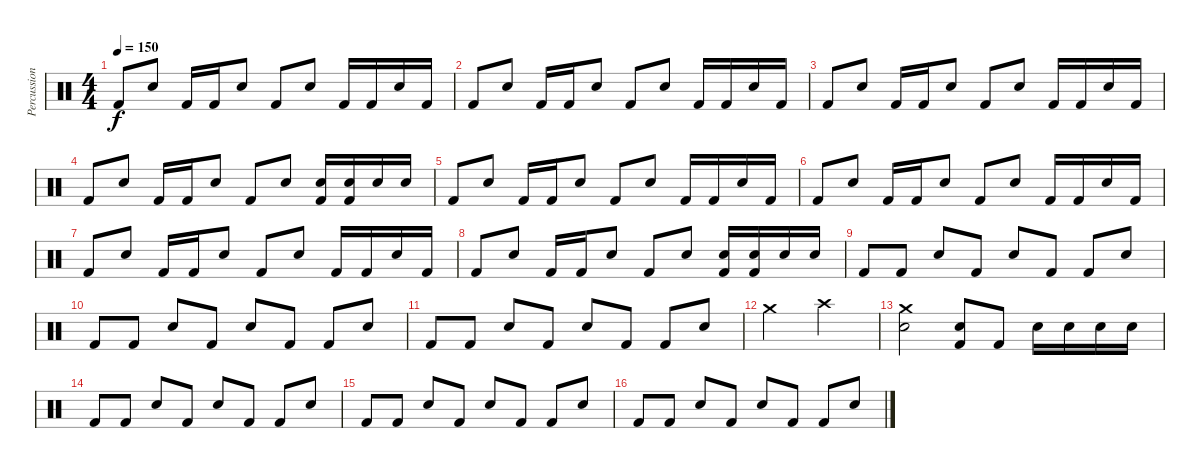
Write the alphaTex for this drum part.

\track ("Percussion" "Percussion") {instrument percussion}
\staff {score}
\articulation defaults
\ts (4 4)
\tempo 150
\clef neutral
\ks c "Kick (hit) 2".8{dy f} "Snare (hit) 2".8 "Kick (hit) 2".16 "Kick (hit) 2".16 "Snare (hit) 2".8 "Kick (hit) 2".8 "Snare (hit) 2".8 "Kick (hit) 2".16 "Kick (hit) 2".16 "Snare (hit) 2".16 "Kick (hit) 2".16
|
"Kick (hit) 2".8 "Snare (hit) 2".8 "Kick (hit) 2".16 "Kick (hit) 2".16 "Snare (hit) 2".8 "Kick (hit) 2".8 "Snare (hit) 2".8 "Kick (hit) 2".16 "Kick (hit) 2".16 "Snare (hit) 2".16 "Kick (hit) 2".16 |
"Kick (hit) 2".8 "Snare (hit) 2".8 "Kick (hit) 2".16 "Kick (hit) 2".16 "Snare (hit) 2".8 "Kick (hit) 2".8 "Snare (hit) 2".8 "Kick (hit) 2".16 "Kick (hit) 2".16 "Snare (hit) 2".16 "Kick (hit) 2".16 |
"Kick (hit) 2".8 "Snare (hit) 2".8 "Kick (hit) 2".16 "Kick (hit) 2".16 "Snare (hit) 2".8 "Kick (hit) 2".8 "Snare (hit) 2".8 ("Kick (hit) 2" "Snare (hit) 2").16 ("Kick (hit) 2" "Snare (hit) 2").16 "Snare (hit) 2".16 "Snare (hit) 2".16 |
"Kick (hit) 2".8 "Snare (hit) 2".8 "Kick (hit) 2".16 "Kick (hit) 2".16 "Snare (hit) 2".8 "Kick (hit) 2".8 "Snare (hit) 2".8 "Kick (hit) 2".16 "Kick (hit) 2".16 "Snare (hit) 2".16 "Kick (hit) 2".16 |
"Kick (hit) 2".8 "Snare (hit) 2".8 "Kick (hit) 2".16 "Kick (hit) 2".16 "Snare (hit) 2".8 "Kick (hit) 2".8 "Snare (hit) 2".8 "Kick (hit) 2".16 "Kick (hit) 2".16 "Snare (hit) 2".16 "Kick (hit) 2".16 |
"Kick (hit) 2".8 "Snare (hit) 2".8 "Kick (hit) 2".16 "Kick (hit) 2".16 "Snare (hit) 2".8 "Kick (hit) 2".8 "Snare (hit) 2".8 "Kick (hit) 2".16 "Kick (hit) 2".16 "Snare (hit) 2".16 "Kick (hit) 2".16 |
"Kick (hit) 2".8 "Snare (hit) 2".8 "Kick (hit) 2".16 "Kick (hit) 2".16 "Snare (hit) 2".8 "Kick (hit) 2".8 "Snare (hit) 2".8 ("Kick (hit) 2" "Snare (hit) 2").16 ("Kick (hit) 2" "Snare (hit) 2").16 "Snare (hit) 2".16 "Snare (hit) 2".16 |
"Kick (hit) 2".8 "Kick (hit) 2".8 "Snare (hit) 2".8 "Kick (hit) 2".8 "Snare (hit) 2".8 "Kick (hit) 2".8 "Kick (hit) 2".8 "Snare (hit) 2".8 |
"Kick (hit) 2".8 "Kick (hit) 2".8 "Snare (hit) 2".8 "Kick (hit) 2".8 "Snare (hit) 2".8 "Kick (hit) 2".8 "Kick (hit) 2".8 "Snare (hit) 2".8 |
"Kick (hit) 2".8 "Kick (hit) 2".8 "Snare (hit) 2".8 "Kick (hit) 2".8 "Snare (hit) 2".8 "Kick (hit) 2".8 "Kick (hit) 2".8 "Snare (hit) 2".8 |
"Crash medium (hit)".2 "Crash high (hit)".2 |
("Snare (hit) 2" "Crash medium (hit)").2 ("Kick (hit) 2" "Snare (hit) 2").8 "Kick (hit) 2".8 "Snare (hit) 2".16 "Snare (hit) 2".16 "Snare (hit) 2".16 "Snare (hit) 2".16 |
"Kick (hit) 2".8 "Kick (hit) 2".8 "Snare (hit) 2".8 "Kick (hit) 2".8 "Snare (hit) 2".8 "Kick (hit) 2".8 "Kick (hit) 2".8 "Snare (hit) 2".8 |
"Kick (hit) 2".8 "Kick (hit) 2".8 "Snare (hit) 2".8 "Kick (hit) 2".8 "Snare (hit) 2".8 "Kick (hit) 2".8 "Kick (hit) 2".8 "Snare (hit) 2".8 |
"Kick (hit) 2".8 "Kick (hit) 2".8 "Snare (hit) 2".8 "Kick (hit) 2".8 "Snare (hit) 2".8 "Kick (hit) 2".8 "Kick (hit) 2".8 "Snare (hit) 2".8
